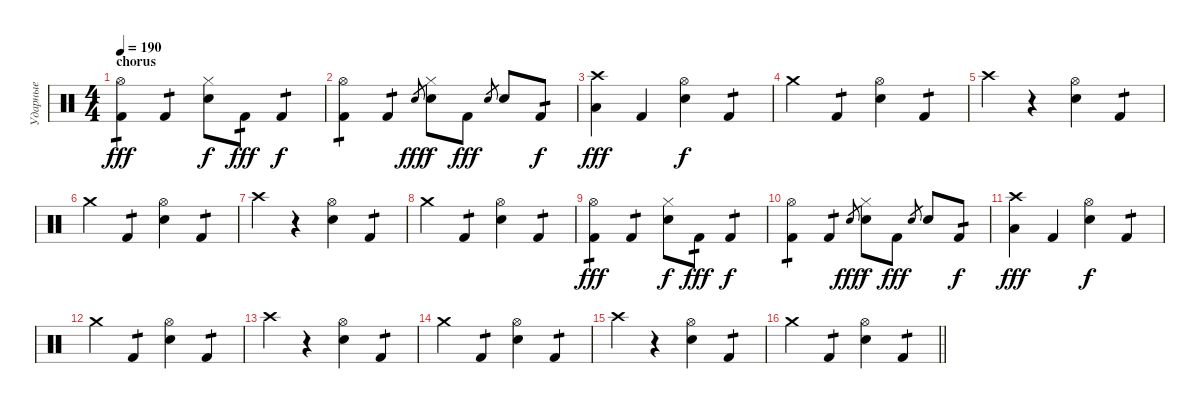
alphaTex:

\track ("Ударные" "Ударные") {instrument percussion}
\staff {score}
\articulation defaults
\ts (4 4)
\section ("" "chorus")
\tempo 190
\clef neutral
\ks c
("Hi-Hat (open)" "Kick (hit) 2").4{tp 1 dy fff} "Kick (hit) 2".4{tp 1} ("Hi-Hat (closed)" "Snare (hit) 2").8{dy f} "Kick (hit) 2".8{tp 1 dy fff} "Kick (hit) 2".4{tp 1 dy f} |
("Hi-Hat (open)" "Kick (hit) 2").4{tp 1} "Kick (hit) 2".4{tp 1} "Snare (hit) 2".8{gr dy fff} ("Hi-Hat (closed)" "Snare (hit) 2").8{dy f} "Kick (hit) 2".8{dy fff} "Snare (hit) 2".8{gr} "Snare (hit) 2".8 "Kick (hit) 2".8{tp 1 dy f} |
("Crash high (hit)" "Low Floor Tom (hit)").4{dy fff} "Kick (hit) 2".4 ("Hi-Hat (open)" "Snare (hit) 2").4{dy f} "Kick (hit) 2".4{tp 1} |
"Crash medium (hit)".4 "Kick (hit) 2".4{tp 1} ("Hi-Hat (open)" "Snare (hit) 2").4 "Kick (hit) 2".4{tp 1} |
"Crash high (hit)".4 r.4 ("Hi-Hat (open)" "Snare (hit) 2").4 "Kick (hit) 2".4{tp 1} |
"Crash medium (hit)".4 "Kick (hit) 2".4{tp 1} ("Hi-Hat (open)" "Snare (hit) 2").4 "Kick (hit) 2".4{tp 1} |
"Crash high (hit)".4 r.4 ("Hi-Hat (open)" "Snare (hit) 2").4 "Kick (hit) 2".4{tp 1} |
"Crash medium (hit)".4 "Kick (hit) 2".4{tp 1} ("Hi-Hat (open)" "Snare (hit) 2").4 "Kick (hit) 2".4{tp 1} |
("Hi-Hat (open)" "Kick (hit) 2").4{tp 1 dy fff} "Kick (hit) 2".4{tp 1} ("Hi-Hat (closed)" "Snare (hit) 2").8{dy f} "Kick (hit) 2".8{tp 1 dy fff} "Kick (hit) 2".4{tp 1 dy f} |
("Hi-Hat (open)" "Kick (hit) 2").4{tp 1} "Kick (hit) 2".4{tp 1} "Snare (hit) 2".8{gr dy fff} ("Hi-Hat (closed)" "Snare (hit) 2").8{dy f} "Kick (hit) 2".8{dy fff} "Snare (hit) 2".8{gr} "Snare (hit) 2".8 "Kick (hit) 2".8{tp 1 dy f} |
("Crash high (hit)" "Low Floor Tom (hit)").4{dy fff} "Kick (hit) 2".4 ("Hi-Hat (open)" "Snare (hit) 2").4{dy f} "Kick (hit) 2".4{tp 1} |
"Crash medium (hit)".4 "Kick (hit) 2".4{tp 1} ("Hi-Hat (open)" "Snare (hit) 2").4 "Kick (hit) 2".4{tp 1} |
"Crash high (hit)".4 r.4 ("Hi-Hat (open)" "Snare (hit) 2").4 "Kick (hit) 2".4{tp 1} |
"Crash medium (hit)".4 "Kick (hit) 2".4{tp 1} ("Hi-Hat (open)" "Snare (hit) 2").4 "Kick (hit) 2".4{tp 1} |
"Crash high (hit)".4 r.4 ("Hi-Hat (open)" "Snare (hit) 2").4 "Kick (hit) 2".4{tp 1} |
\barLineRight lightlight "Crash medium (hit)".4 "Kick (hit) 2".4{tp 1}
("Hi-Hat (open)" "Snare (hit) 2").4 "Kick (hit) 2".4{tp 1}
